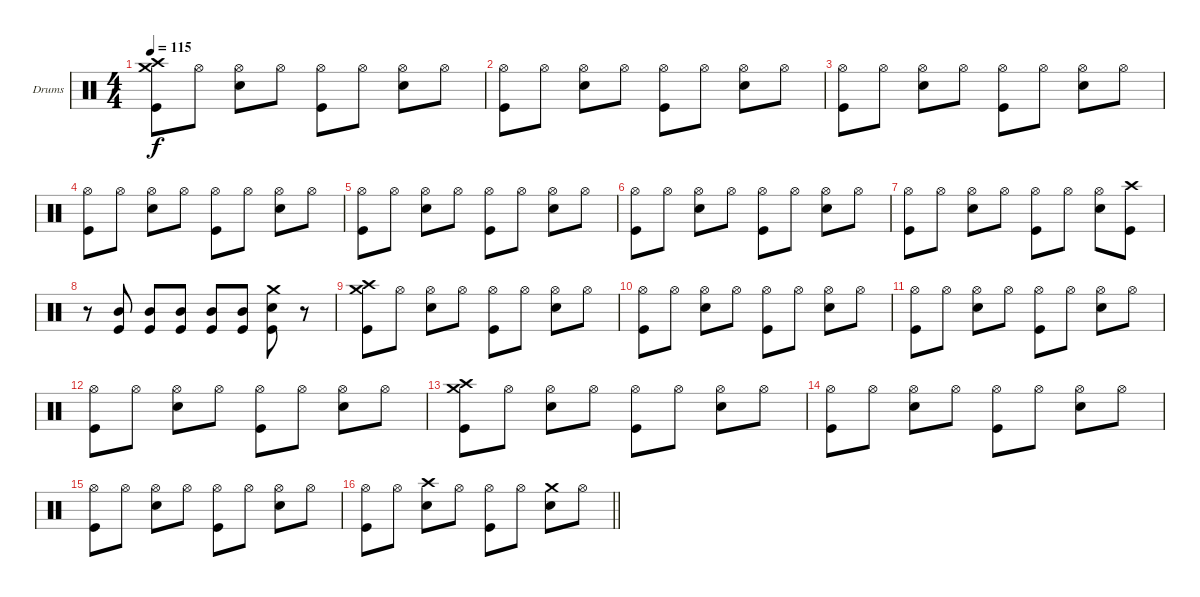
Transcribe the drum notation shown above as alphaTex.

\bracketExtendMode groupsimilarinstruments
\firstSystemTrackNameOrientation horizontal
\otherSystemsTrackNameOrientation horizontal
\track ("Drumkit" "Drums") {instrument percussion}
\staff {score}
\articulation defaults
\ts (4 4)
\tempo 115
\clef neutral
\ks c
("Crash medium (hit)" "Crash high (hit)" "Kick (hit)").8{dy f} "Hi-Hat (open)".8 ("Hi-Hat (open)" "Snare (hit) 2").8 "Hi-Hat (open)".8 ("Hi-Hat (open)" "Kick (hit)").8 "Hi-Hat (open)".8 ("Hi-Hat (open)" "Snare (hit) 2").8 "Hi-Hat (open)".8 |
("Hi-Hat (open)" "Kick (hit)").8 "Hi-Hat (open)".8 ("Hi-Hat (open)" "Snare (hit) 2").8 "Hi-Hat (open)".8 ("Hi-Hat (open)" "Kick (hit)").8 "Hi-Hat (open)".8 ("Hi-Hat (open)" "Snare (hit) 2").8 "Hi-Hat (open)".8 |
("Hi-Hat (open)" "Kick (hit)").8 "Hi-Hat (open)".8 ("Hi-Hat (open)" "Snare (hit) 2").8 "Hi-Hat (open)".8 ("Hi-Hat (open)" "Kick (hit)").8 "Hi-Hat (open)".8 ("Hi-Hat (open)" "Snare (hit) 2").8 "Hi-Hat (open)".8 |
("Hi-Hat (open)" "Kick (hit)").8 "Hi-Hat (open)".8 ("Hi-Hat (open)" "Snare (hit) 2").8 "Hi-Hat (open)".8 ("Hi-Hat (open)" "Kick (hit)").8 "Hi-Hat (open)".8 ("Hi-Hat (open)" "Snare (hit) 2").8 "Hi-Hat (open)".8 |
("Hi-Hat (open)" "Kick (hit)").8 "Hi-Hat (open)".8 ("Hi-Hat (open)" "Snare (hit) 2").8 "Hi-Hat (open)".8 ("Hi-Hat (open)" "Kick (hit)").8 "Hi-Hat (open)".8 ("Hi-Hat (open)" "Snare (hit) 2").8 "Hi-Hat (open)".8 |
("Hi-Hat (open)" "Kick (hit)").8 "Hi-Hat (open)".8 ("Hi-Hat (open)" "Snare (hit) 2").8 "Hi-Hat (open)".8 ("Hi-Hat (open)" "Kick (hit)").8 "Hi-Hat (open)".8 ("Hi-Hat (open)" "Snare (hit) 2").8 "Hi-Hat (open)".8 |
("Hi-Hat (open)" "Kick (hit)").8 "Hi-Hat (open)".8 ("Hi-Hat (open)" "Snare (hit) 2").8 "Hi-Hat (open)".8 ("Hi-Hat (open)" "Kick (hit)").8 "Hi-Hat (open)".8 ("Hi-Hat (open)" "Snare (hit) 2").8 ("Crash high (hit)" "Kick (hit)").8 |
r.8 ("Kick (hit)" "Mid Tom (hit)").8 ("Kick (hit)" "Mid Tom (hit)").8 ("Kick (hit)" "Mid Tom (hit)").8 ("Kick (hit)" "Mid Tom (hit)").8 ("Kick (hit)" "Mid Tom (hit)").8 ("Crash medium (hit)" "Kick (hit)" "Snare (hit) 2").8 r.8 |
("Crash medium (hit)" "Crash high (hit)" "Kick (hit)").8 "Hi-Hat (open)".8 ("Hi-Hat (open)" "Snare (hit) 2").8 "Hi-Hat (open)".8 ("Hi-Hat (open)" "Kick (hit)").8 "Hi-Hat (open)".8 ("Hi-Hat (open)" "Snare (hit) 2").8 "Hi-Hat (open)".8 |
("Hi-Hat (open)" "Kick (hit)").8 "Hi-Hat (open)".8 ("Hi-Hat (open)" "Snare (hit) 2").8 "Hi-Hat (open)".8 ("Hi-Hat (open)" "Kick (hit)").8 "Hi-Hat (open)".8 ("Hi-Hat (open)" "Snare (hit) 2").8 "Hi-Hat (open)".8 |
("Hi-Hat (open)" "Kick (hit)").8 "Hi-Hat (open)".8 ("Hi-Hat (open)" "Snare (hit) 2").8 "Hi-Hat (open)".8 ("Hi-Hat (open)" "Kick (hit)").8 "Hi-Hat (open)".8 ("Hi-Hat (open)" "Snare (hit) 2").8 "Hi-Hat (open)".8 |
("Hi-Hat (open)" "Kick (hit)").8 "Hi-Hat (open)".8 ("Hi-Hat (open)" "Snare (hit) 2").8 "Hi-Hat (open)".8 ("Hi-Hat (open)" "Kick (hit)").8 "Hi-Hat (open)".8 ("Hi-Hat (open)" "Snare (hit) 2").8 "Hi-Hat (open)".8 |
("Crash medium (hit)" "Crash high (hit)" "Kick (hit)").8 "Hi-Hat (open)".8 ("Hi-Hat (open)" "Snare (hit) 2").8 "Hi-Hat (open)".8 ("Hi-Hat (open)" "Kick (hit)").8 "Hi-Hat (open)".8 ("Hi-Hat (open)" "Snare (hit) 2").8 "Hi-Hat (open)".8 |
("Hi-Hat (open)" "Kick (hit)").8 "Hi-Hat (open)".8 ("Hi-Hat (open)" "Snare (hit) 2").8 "Hi-Hat (open)".8 ("Hi-Hat (open)" "Kick (hit)").8 "Hi-Hat (open)".8 ("Hi-Hat (open)" "Snare (hit) 2").8 "Hi-Hat (open)".8 |
("Hi-Hat (open)" "Kick (hit)").8 "Hi-Hat (open)".8 ("Hi-Hat (open)" "Snare (hit) 2").8 "Hi-Hat (open)".8 ("Hi-Hat (open)" "Kick (hit)").8 "Hi-Hat (open)".8 ("Hi-Hat (open)" "Snare (hit) 2").8 "Hi-Hat (open)".8 |
\barLineRight lightlight
("Hi-Hat (open)" "Kick (hit)").8 "Hi-Hat (open)".8 ("Crash high (hit)" "Snare (hit) 2").8 "Hi-Hat (open)".8 ("Hi-Hat (open)" "Kick (hit)").8 "Hi-Hat (open)".8 ("Crash medium (hit)" "Snare (hit) 2").8 "Hi-Hat (open)".8
